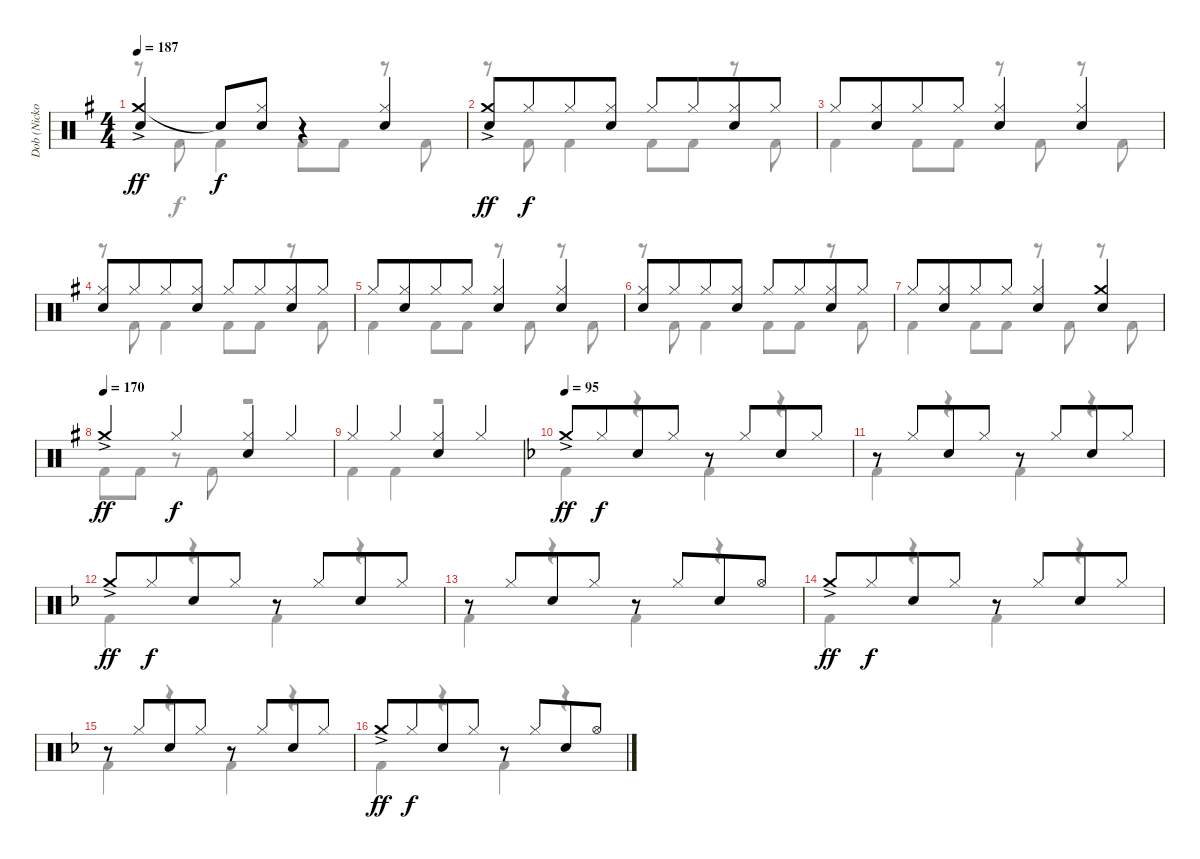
\track ("Dob (Nicko McBrain)" "Dob (Nicko") {instrument percussion}
\staff {score}
\articulation defaults
\voice
\ts (4 4)
\tempo 187
\clef neutral
\ks g
("Crash medium (hit)"{ac} "Electric Snare (hit)").4{dy ff} "Snare (hit)"{t}.8{dy f} ("Hi-Hat (closed)" "Electric Snare (hit)").8 r.4 ("Hi-Hat (closed)" "Electric Snare (hit)").4 |
("Crash medium (hit)"{ac} "Electric Snare (hit)").8{dy ff} "Hi-Hat (closed)".8{dy f beam merge} "Hi-Hat (closed)".8 ("Hi-Hat (closed)" "Electric Snare (hit)").8 "Hi-Hat (closed)".8 "Hi-Hat (closed)".8{beam merge} ("Hi-Hat (closed)" "Electric Snare (hit)").8 "Hi-Hat (closed)".8 |
"Hi-Hat (closed)".8 ("Hi-Hat (closed)" "Electric Snare (hit)").8{beam merge} "Hi-Hat (closed)".8 "Hi-Hat (closed)".8 ("Hi-Hat (closed)" "Electric Snare (hit)").4 ("Hi-Hat (closed)" "Electric Snare (hit)").4 |
("Hi-Hat (closed)" "Electric Snare (hit)").8 "Hi-Hat (closed)".8{beam merge} "Hi-Hat (closed)".8 ("Hi-Hat (closed)" "Electric Snare (hit)").8 "Hi-Hat (closed)".8 "Hi-Hat (closed)".8{beam merge} ("Hi-Hat (closed)" "Electric Snare (hit)").8 "Hi-Hat (closed)".8 |
"Hi-Hat (closed)".8 ("Hi-Hat (closed)" "Electric Snare (hit)").8{beam merge} "Hi-Hat (closed)".8 "Hi-Hat (closed)".8 ("Hi-Hat (closed)" "Electric Snare (hit)").4 ("Hi-Hat (closed)" "Electric Snare (hit)").4 |
("Hi-Hat (closed)" "Electric Snare (hit)").8 "Hi-Hat (closed)".8{beam merge} "Hi-Hat (closed)".8 ("Hi-Hat (closed)" "Electric Snare (hit)").8 "Hi-Hat (closed)".8 "Hi-Hat (closed)".8{beam merge} ("Hi-Hat (closed)" "Electric Snare (hit)").8 "Hi-Hat (closed)".8 |
"Hi-Hat (closed)".8 ("Hi-Hat (closed)" "Electric Snare (hit)").8{beam merge} "Hi-Hat (closed)".8 "Hi-Hat (closed)".8 ("Hi-Hat (closed)" "Electric Snare (hit)").4 ("Crash medium (hit)" "Electric Snare (hit)").4 |
\tempo (170)
"Crash medium (hit)"{ac}.4{dy ff} "Hi-Hat (closed)".4{dy f} ("Hi-Hat (closed)" "Electric Snare (hit)").4 "Hi-Hat (closed)".4 |
"Hi-Hat (closed)".4 "Hi-Hat (closed)".4 ("Hi-Hat (closed)" "Electric Snare (hit)").4 "Hi-Hat (closed)".4 |
\tempo 95
\ks f "Crash medium (hit)"{ac}.8{dy ff} "Hi-Hat (closed)".8{dy f beam merge} "Electric Snare (hit)".8 "Hi-Hat (closed)".8
r.8 "Hi-Hat (closed)".8{beam merge} "Electric Snare (hit)".8 "Hi-Hat (closed)".8 |
r.8 "Hi-Hat (closed)".8{beam Up beam merge} "Electric Snare (hit)".8{beam Up} "Hi-Hat (closed)".8{beam Up} r.8 "Hi-Hat (closed)".8{beam Up beam merge} "Electric Snare (hit)".8{beam Up} "Hi-Hat (closed)".8{beam Up} |
"Crash medium (hit)"{ac}.8{dy ff} "Hi-Hat (closed)".8{dy f beam merge} "Electric Snare (hit)".8 "Hi-Hat (closed)".8 r.8 "Hi-Hat (closed)".8{beam Up beam merge} "Electric Snare (hit)".8{beam Up} "Hi-Hat (closed)".8{beam Up} |
r.8{beam Up} "Hi-Hat (closed)".8{beam Up beam merge} "Electric Snare (hit)".8{beam Up} "Hi-Hat (closed)".8{beam Up} r.8 "Hi-Hat (closed)".8{beam Up beam merge} "Electric Snare (hit)".8{beam Up} "Hi-Hat (open)".8{beam Up} |
"Crash medium (hit)"{ac}.8{dy ff} "Hi-Hat (closed)".8{dy f beam merge} "Electric Snare (hit)".8 "Hi-Hat (closed)".8 r.8 "Hi-Hat (closed)".8{beam merge} "Electric Snare (hit)".8 "Hi-Hat (closed)".8 |
r.8 "Hi-Hat (closed)".8{beam Up beam merge} "Electric Snare (hit)".8{beam Up} "Hi-Hat (closed)".8{beam Up} r.8 "Hi-Hat (closed)".8{beam Up beam merge} "Electric Snare (hit)".8{beam Up} "Hi-Hat (closed)".8{beam Up} |
"Crash medium (hit)"{ac}.8{dy ff} "Hi-Hat (closed)".8{dy f beam merge} "Electric Snare (hit)".8 "Hi-Hat (closed)".8 r.8 "Hi-Hat (closed)".8{beam Up beam merge} "Electric Snare (hit)".8{beam Up} "Hi-Hat (open)".8{beam Up}
\voice
\clef neutral
\ottava regular
\simile none
\ks g
r.8{dy f} "Kick (hit) 2".8 "Kick (hit) 2".4 "Kick (hit) 2".8 "Kick (hit) 2".8 r.8 "Kick (hit) 2".8 |
r.8 "Kick (hit) 2".8 "Kick (hit) 2".4 "Kick (hit) 2".8 "Kick (hit) 2".8 r.8 "Kick (hit) 2".8 |
"Kick (hit) 2".4 "Kick (hit) 2".8 "Kick (hit) 2".8 r.8 "Kick (hit) 2".8 r.8 "Kick (hit) 2".8 |
r.8 "Kick (hit) 2".8 "Kick (hit) 2".4 "Kick (hit) 2".8 "Kick (hit) 2".8 r.8 "Kick (hit) 2".8 |
"Kick (hit) 2".4 "Kick (hit) 2".8 "Kick (hit) 2".8 r.8 "Kick (hit) 2".8 r.8 "Kick (hit) 2".8 |
r.8 "Kick (hit) 2".8 "Kick (hit) 2".4 "Kick (hit) 2".8 "Kick (hit) 2".8 r.8 "Kick (hit) 2".8 |
"Kick (hit) 2".4 "Kick (hit) 2".8 "Kick (hit) 2".8 r.8 "Kick (hit) 2".8 r.8 "Kick (hit) 2".8 |
"Kick (hit) 2".8 "Kick (hit) 2".8 r.8 "Kick (hit) 2".8 r.2 |
"Kick (hit) 2".4 "Kick (hit) 2".4 r.2 |
\ks f "Kick (hit) 2".4
r.4 "Kick (hit) 2".4 r.4 |
"Kick (hit) 2".4 r.4 "Kick (hit) 2".4 r.4 |
"Kick (hit) 2".4 r.4 "Kick (hit) 2".4 r.4 |
"Kick (hit) 2".4 r.4 "Kick (hit) 2".4 r.4 |
"Kick (hit) 2".4 r.4 "Kick (hit) 2".4 r.4 |
"Kick (hit) 2".4 r.4 "Kick (hit) 2".4 r.4 |
"Kick (hit) 2".4 r.4 "Kick (hit) 2".4 r.4
